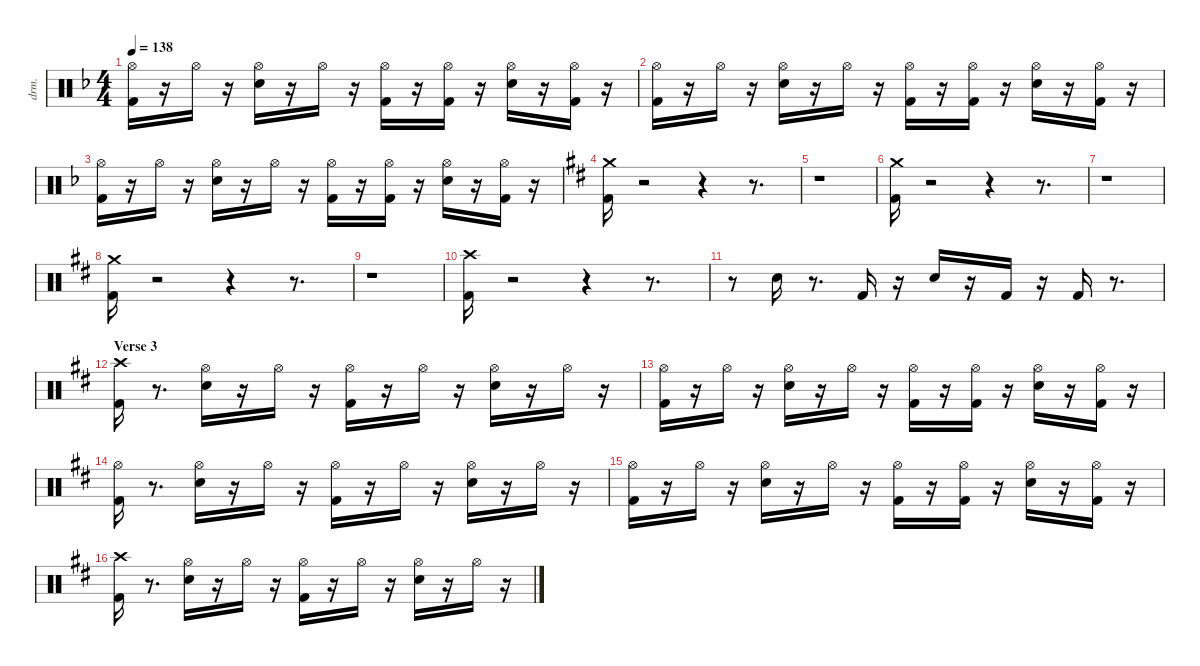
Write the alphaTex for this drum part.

\hideDynamics
\bracketExtendMode groupsimilarinstruments
\otherSystemsTrackNameOrientation horizontal
\track ("Drumkit" "drm.") {instrument percussion}
\staff {score}
\articulation defaults
\ts (4 4)
\tempo 138
\clef neutral
\ks f
("Kick (hit) 2"{acc forcenatural} "Hi-Hat (open)"{acc #}).16{dy ff} r.16 "Hi-Hat (open)"{acc #}.16{dy p} r.16 ("Snare (hit) 2"{acc forcenatural} "Hi-Hat (open)"{acc #}).16{dy f} r.16 "Hi-Hat (open)"{acc #}.16{dy p} r.16 ("Kick (hit) 2"{acc forcenatural} "Hi-Hat (open)"{acc #}).16{dy ff} r.16 ("Kick (hit) 2"{acc forcenatural} "Hi-Hat (open)"{acc #}).16 r.16 ("Snare (hit) 2"{acc forcenatural} "Hi-Hat (open)"{acc #}).16{dy mp} r.16 ("Kick (hit) 2"{acc forcenatural} "Hi-Hat (open)"{acc #}).16{dy f} r.16 |
("Kick (hit) 2"{acc forcenatural} "Hi-Hat (open)"{acc #}).16{dy fff} r.16 "Hi-Hat (open)"{acc #}.16{dy p} r.16 ("Snare (hit) 2"{acc forcenatural} "Hi-Hat (open)"{acc #}).16{dy f} r.16 "Hi-Hat (open)"{acc #}.16{dy p} r.16 ("Kick (hit) 2"{acc forcenatural} "Hi-Hat (open)"{acc #}).16{dy ff} r.16 ("Kick (hit) 2"{acc forcenatural} "Hi-Hat (open)"{acc #}).16 r.16 ("Snare (hit) 2"{acc forcenatural} "Hi-Hat (open)"{acc #}).16{dy mp} r.16 ("Kick (hit) 2"{acc forcenatural} "Hi-Hat (open)"{acc #}).16{dy f} r.16 |
("Kick (hit) 2"{acc forcenatural} "Hi-Hat (open)"{acc #}).16{dy fff} r.16 "Hi-Hat (open)"{acc #}.16{dy p} r.16 ("Snare (hit) 2"{acc forcenatural} "Hi-Hat (open)"{acc #}).16{dy f} r.16 "Hi-Hat (open)"{acc #}.16{dy p} r.16 ("Kick (hit) 2"{acc forcenatural} "Hi-Hat (open)"{acc #}).16{dy fff} r.16 ("Kick (hit) 2"{acc forcenatural} "Hi-Hat (open)"{acc #}).16 r.16 ("Snare (hit) 2"{acc forcenatural} "Hi-Hat (open)"{acc #}).16{dy mp} r.16 ("Kick (hit) 2"{acc forcenatural} "Hi-Hat (open)"{acc #}).16{dy f} r.16 |
\ks d
("Kick (hit) 2"{acc forcenatural} "Crash medium (hit)"{acc forcenatural}).16{dy ff} r.2 r.4 r.8{d} |
r.1 |
("Kick (hit) 2"{acc forcenatural} "Crash medium (hit)"{acc forcenatural}).16 r.2 r.4 r.8{d} |
r.1 |
("Kick (hit) 2"{acc forcenatural} "Crash medium (hit)"{acc forcenatural}).16 r.2 r.4 r.8{d} |
r.1 |
("Kick (hit) 2"{acc forcenatural} "Crash high (hit)"{acc #}).16{dy fff} r.2 r.4 r.8{d} |
r.8 "Snare (hit) 2"{acc forcenatural}.16{dy f} r.8{d} "Kick (hit) 2"{acc forcenatural}.16{dy fff} r.16 "Snare (hit) 2"{acc forcenatural}.16{dy f} r.16 "Kick (hit) 2"{acc forcenatural}.16{dy fff} r.16 "Kick (hit) 2"{acc forcenatural}.16 r.8{d} |
\section ("" "Verse 3")
("Kick (hit) 2"{acc forcenatural} "Crash high (hit)"{acc #}).16{dy f} r.8{d} ("Snare (hit) 2"{acc forcenatural} "Hi-Hat (open)"{acc #}).16{dy mf} r.16 "Hi-Hat (open)"{acc #}.16{dy p} r.16 ("Kick (hit) 2"{acc forcenatural} "Hi-Hat (open)"{acc #}).16{dy ff} r.16 "Hi-Hat (open)"{acc #}.16{dy p} r.16 ("Snare (hit) 2"{acc forcenatural} "Hi-Hat (open)"{acc #}).16{dy f} r.16 "Hi-Hat (open)"{acc #}.16{dy p} r.16 |
("Kick (hit) 2"{acc forcenatural} "Hi-Hat (open)"{acc #}).16{dy fff} r.16 "Hi-Hat (open)"{acc #}.16{dy p} r.16 ("Snare (hit) 2"{acc forcenatural} "Hi-Hat (open)"{acc #}).16{dy f} r.16 "Hi-Hat (open)"{acc #}.16{dy p} r.16 ("Kick (hit) 2"{acc forcenatural} "Hi-Hat (open)"{acc #}).16{dy ff} r.16 ("Kick (hit) 2"{acc forcenatural} "Hi-Hat (open)"{acc #}).16 r.16 ("Snare (hit) 2"{acc forcenatural} "Hi-Hat (open)"{acc #}).16{dy mp} r.16 ("Kick (hit) 2"{acc forcenatural} "Hi-Hat (open)"{acc #}).16{dy f} r.16 |
("Kick (hit) 2"{acc forcenatural} "Hi-Hat (open)"{acc #}).16 r.8{d} ("Snare (hit) 2"{acc forcenatural} "Hi-Hat (open)"{acc #}).16 r.16 "Hi-Hat (open)"{acc #}.16{dy p} r.16 ("Kick (hit) 2"{acc forcenatural} "Hi-Hat (open)"{acc #}).16{dy f} r.16 "Hi-Hat (open)"{acc #}.16{dy p} r.16 ("Snare (hit) 2"{acc forcenatural} "Hi-Hat (open)"{acc #}).16{dy f} r.16 "Hi-Hat (open)"{acc #}.16{dy p} r.16 |
("Kick (hit) 2"{acc forcenatural} "Hi-Hat (open)"{acc #}).16{dy ff} r.16 "Hi-Hat (open)"{acc #}.16{dy p} r.16 ("Snare (hit) 2"{acc forcenatural} "Hi-Hat (open)"{acc #}).16{dy f} r.16 "Hi-Hat (open)"{acc #}.16{dy p} r.16 ("Kick (hit) 2"{acc forcenatural} "Hi-Hat (open)"{acc #}).16{dy ff} r.16 ("Kick (hit) 2"{acc forcenatural} "Hi-Hat (open)"{acc #}).16 r.16 ("Snare (hit) 2"{acc forcenatural} "Hi-Hat (open)"{acc #}).16{dy mp} r.16 ("Kick (hit) 2"{acc forcenatural} "Hi-Hat (open)"{acc #}).16{dy ff} r.16 |
("Kick (hit) 2"{acc forcenatural} "Crash high (hit)"{acc #}).16{dy f} r.8{d} ("Snare (hit) 2"{acc forcenatural} "Hi-Hat (open)"{acc #}).16 r.16 "Hi-Hat (open)"{acc #}.16{dy p} r.16 ("Kick (hit) 2"{acc forcenatural} "Hi-Hat (open)"{acc #}).16{dy f} r.16 "Hi-Hat (open)"{acc #}.16{dy p} r.16 ("Snare (hit) 2"{acc forcenatural} "Hi-Hat (open)"{acc #}).16{dy mf} r.16 "Hi-Hat (open)"{acc #}.16{dy p} r.16
